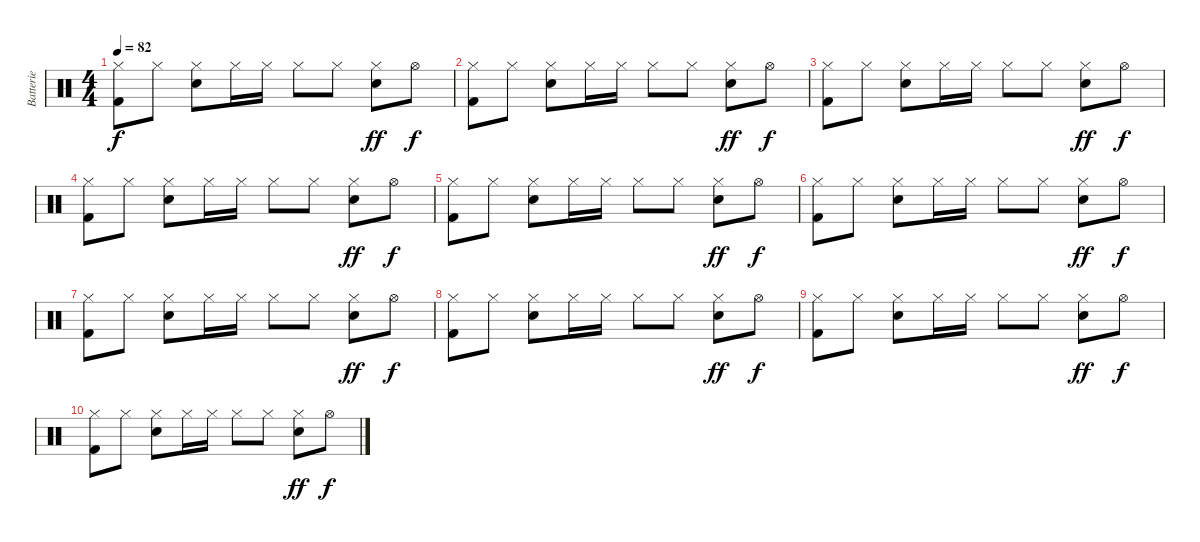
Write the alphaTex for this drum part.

\track ("Batterie" "Batterie") {instrument percussion}
\staff {score}
\articulation defaults
\ts (4 4)
\tempo 82
\clef neutral
\ks c
("Hi-Hat (closed)" "Kick (hit) 2").8{dy f} "Hi-Hat (closed)".8 ("Hi-Hat (closed)" "Electric Snare (hit)").8 "Hi-Hat (closed)".16 "Hi-Hat (closed)".16 "Hi-Hat (closed)".8 "Hi-Hat (closed)".8 ("Hi-Hat (closed)" "Electric Snare (hit)").8{dy ff} "Hi-Hat (open)".8{dy f} |
("Hi-Hat (closed)" "Kick (hit) 2").8 "Hi-Hat (closed)".8 ("Hi-Hat (closed)" "Electric Snare (hit)").8 "Hi-Hat (closed)".16 "Hi-Hat (closed)".16 "Hi-Hat (closed)".8 "Hi-Hat (closed)".8 ("Hi-Hat (closed)" "Electric Snare (hit)").8{dy ff} "Hi-Hat (open)".8{dy f} |
("Hi-Hat (closed)" "Kick (hit) 2").8 "Hi-Hat (closed)".8 ("Hi-Hat (closed)" "Electric Snare (hit)").8 "Hi-Hat (closed)".16 "Hi-Hat (closed)".16 "Hi-Hat (closed)".8 "Hi-Hat (closed)".8 ("Hi-Hat (closed)" "Electric Snare (hit)").8{dy ff} "Hi-Hat (open)".8{dy f} |
("Hi-Hat (closed)" "Kick (hit) 2").8 "Hi-Hat (closed)".8 ("Hi-Hat (closed)" "Electric Snare (hit)").8 "Hi-Hat (closed)".16 "Hi-Hat (closed)".16 "Hi-Hat (closed)".8 "Hi-Hat (closed)".8 ("Hi-Hat (closed)" "Electric Snare (hit)").8{dy ff} "Hi-Hat (open)".8{dy f} |
("Hi-Hat (closed)" "Kick (hit) 2").8 "Hi-Hat (closed)".8 ("Hi-Hat (closed)" "Electric Snare (hit)").8 "Hi-Hat (closed)".16 "Hi-Hat (closed)".16 "Hi-Hat (closed)".8 "Hi-Hat (closed)".8 ("Hi-Hat (closed)" "Electric Snare (hit)").8{dy ff} "Hi-Hat (open)".8{dy f} |
("Hi-Hat (closed)" "Kick (hit) 2").8 "Hi-Hat (closed)".8 ("Hi-Hat (closed)" "Electric Snare (hit)").8 "Hi-Hat (closed)".16 "Hi-Hat (closed)".16 "Hi-Hat (closed)".8 "Hi-Hat (closed)".8 ("Hi-Hat (closed)" "Electric Snare (hit)").8{dy ff} "Hi-Hat (open)".8{dy f} |
("Hi-Hat (closed)" "Kick (hit) 2").8 "Hi-Hat (closed)".8 ("Hi-Hat (closed)" "Electric Snare (hit)").8 "Hi-Hat (closed)".16 "Hi-Hat (closed)".16 "Hi-Hat (closed)".8 "Hi-Hat (closed)".8 ("Hi-Hat (closed)" "Electric Snare (hit)").8{dy ff} "Hi-Hat (open)".8{dy f} |
("Hi-Hat (closed)" "Kick (hit) 2").8 "Hi-Hat (closed)".8 ("Hi-Hat (closed)" "Electric Snare (hit)").8 "Hi-Hat (closed)".16 "Hi-Hat (closed)".16 "Hi-Hat (closed)".8 "Hi-Hat (closed)".8 ("Hi-Hat (closed)" "Electric Snare (hit)").8{dy ff} "Hi-Hat (open)".8{dy f} |
("Hi-Hat (closed)" "Kick (hit) 2").8 "Hi-Hat (closed)".8 ("Hi-Hat (closed)" "Electric Snare (hit)").8 "Hi-Hat (closed)".16 "Hi-Hat (closed)".16 "Hi-Hat (closed)".8 "Hi-Hat (closed)".8 ("Hi-Hat (closed)" "Electric Snare (hit)").8{dy ff} "Hi-Hat (open)".8{dy f} |
("Hi-Hat (closed)" "Kick (hit) 2").8 "Hi-Hat (closed)".8 ("Hi-Hat (closed)" "Electric Snare (hit)").8 "Hi-Hat (closed)".16 "Hi-Hat (closed)".16 "Hi-Hat (closed)".8 "Hi-Hat (closed)".8 ("Hi-Hat (closed)" "Electric Snare (hit)").8{dy ff} "Hi-Hat (open)".8{dy f}
